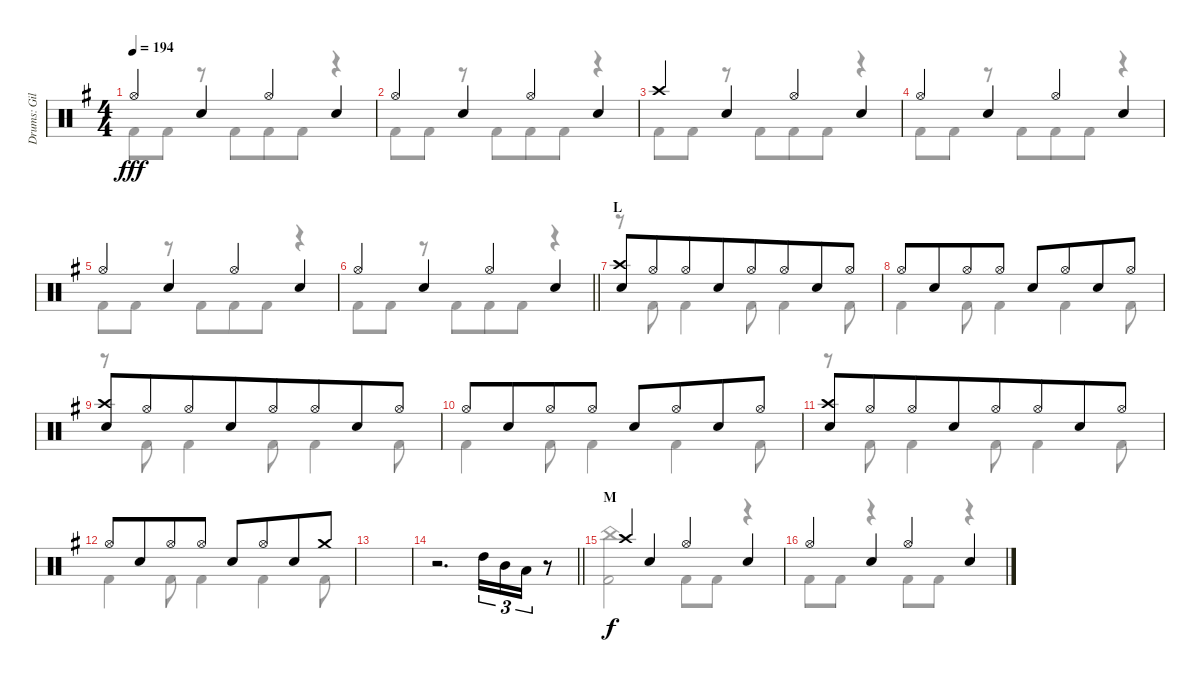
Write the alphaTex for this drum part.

\track ("Drums: Gil" "Drums: Gil") {instrument percussion}
\staff {score}
\articulation defaults
\voice
\ts (4 4)
\tempo 194
\clef neutral
\ks g "Hi-Hat (open)".4{dy fff} "Snare (hit) 2".4 "Hi-Hat (open)".4 "Snare (hit) 2".4
|
"Hi-Hat (open)".4 "Snare (hit) 2".4 "Hi-Hat (open)".4 "Snare (hit) 2".4 |
"Crash high (hit)".4 "Snare (hit) 2".4 "Hi-Hat (open)".4 "Snare (hit) 2".4 |
"Hi-Hat (open)".4 "Snare (hit) 2".4 "Hi-Hat (open)".4 "Snare (hit) 2".4 |
"Hi-Hat (open)".4 "Snare (hit) 2".4 "Hi-Hat (open)".4 "Snare (hit) 2".4 |
\barLineRight lightlight "Hi-Hat (open)".4 "Snare (hit) 2".4 "Hi-Hat (open)".4 "Snare (hit) 2".4
|
\section ("" "L")
("Crash high (hit)" "Snare (hit) 2").8{beam merge} "Hi-Hat (open)".8{beam merge} "Hi-Hat (open)".8 "Snare (hit) 2".8{beam merge} "Hi-Hat (open)".8 "Hi-Hat (open)".8{beam merge} "Snare (hit) 2".8 "Hi-Hat (open)".8 |
"Hi-Hat (open)".8 "Snare (hit) 2".8{beam merge} "Hi-Hat (open)".8{beam merge} "Hi-Hat (open)".8 "Snare (hit) 2".8{beam merge} "Hi-Hat (open)".8{beam merge} "Snare (hit) 2".8{beam merge} "Hi-Hat (open)".8 |
("Crash high (hit)" "Snare (hit) 2").8{beam merge} "Hi-Hat (open)".8{beam merge} "Hi-Hat (open)".8 "Snare (hit) 2".8{beam merge} "Hi-Hat (open)".8 "Hi-Hat (open)".8{beam merge} "Snare (hit) 2".8 "Hi-Hat (open)".8 |
"Hi-Hat (open)".8 "Snare (hit) 2".8{beam merge} "Hi-Hat (open)".8{beam merge} "Hi-Hat (open)".8 "Snare (hit) 2".8{beam merge} "Hi-Hat (open)".8{beam merge} "Snare (hit) 2".8{beam merge} "Hi-Hat (open)".8 |
("Crash high (hit)" "Snare (hit) 2").8{beam merge} "Hi-Hat (open)".8{beam merge} "Hi-Hat (open)".8 "Snare (hit) 2".8{beam merge} "Hi-Hat (open)".8 "Hi-Hat (open)".8{beam merge} "Snare (hit) 2".8 "Hi-Hat (open)".8 |
"Hi-Hat (open)".8 "Snare (hit) 2".8{beam merge} "Hi-Hat (open)".8{beam merge} "Hi-Hat (open)".8 "Snare (hit) 2".8{beam merge} "Hi-Hat (open)".8{beam merge} "Snare (hit) 2".8{beam merge} "Crash medium (hit)".8 |
|
\barLineRight lightlight
r.2{d} "High Tom (hit)".16{tu (3 2) beam merge} "Mid Tom (hit)".16{tu (3 2)} "Low Tom (hit)".16{tu (3 2)} r.8 |
\section ("" "M")
"Crash high (hit)".4{dy f} "Snare (hit) 2".4 "Hi-Hat (open)".4 "Snare (hit) 2".4 |
"Hi-Hat (open)".4 "Snare (hit) 2".4 "Hi-Hat (open)".4 "Snare (hit) 2".4
\voice
\clef neutral
\ottava regular
\simile none
\ks g "Kick (hit) 2".8{dy fff} "Kick (hit) 2".8
r.8 "Kick (hit) 2".8{beam merge} "Kick (hit) 2".8 "Kick (hit) 2".8 r.4 |
"Kick (hit) 2".8 "Kick (hit) 2".8 r.8 "Kick (hit) 2".8{beam merge} "Kick (hit) 2".8 "Kick (hit) 2".8 r.4 |
"Kick (hit) 2".8 "Kick (hit) 2".8 r.8 "Kick (hit) 2".8{beam merge} "Kick (hit) 2".8 "Kick (hit) 2".8 r.4 |
"Kick (hit) 2".8 "Kick (hit) 2".8 r.8 "Kick (hit) 2".8{beam merge} "Kick (hit) 2".8 "Kick (hit) 2".8 r.4 |
"Kick (hit) 2".8 "Kick (hit) 2".8 r.8 "Kick (hit) 2".8{beam merge} "Kick (hit) 2".8 "Kick (hit) 2".8 r.4 |
\barLineRight lightlight "Kick (hit) 2".8 "Kick (hit) 2".8
r.8 "Kick (hit) 2".8{beam merge} "Kick (hit) 2".8 "Kick (hit) 2".8 r.4 |
r.8 "Kick (hit) 2".8 "Kick (hit) 2".4 "Kick (hit) 2".8 "Kick (hit) 2".4 "Kick (hit) 2".8 |
"Kick (hit) 2".4 "Kick (hit) 2".8 "Kick (hit) 2".4 "Kick (hit) 2".4 "Kick (hit) 2".8 |
r.8 "Kick (hit) 2".8 "Kick (hit) 2".4 "Kick (hit) 2".8 "Kick (hit) 2".4 "Kick (hit) 2".8 |
"Kick (hit) 2".4 "Kick (hit) 2".8 "Kick (hit) 2".4 "Kick (hit) 2".4 "Kick (hit) 2".8 |
r.8 "Kick (hit) 2".8 "Kick (hit) 2".4 "Kick (hit) 2".8 "Kick (hit) 2".4 "Kick (hit) 2".8 |
"Kick (hit) 2".4 "Kick (hit) 2".8 "Kick (hit) 2".4 "Kick (hit) 2".4 "Kick (hit) 2".8 |
|
\barLineRight lightlight
|
("China (hit)" "Kick (hit) 2").2 "Kick (hit) 2".8 "Kick (hit) 2".8{beam merge} r.4 |
"Kick (hit) 2".8 "Kick (hit) 2".8 r.4 "Kick (hit) 2".8 "Kick (hit) 2".8 r.4
